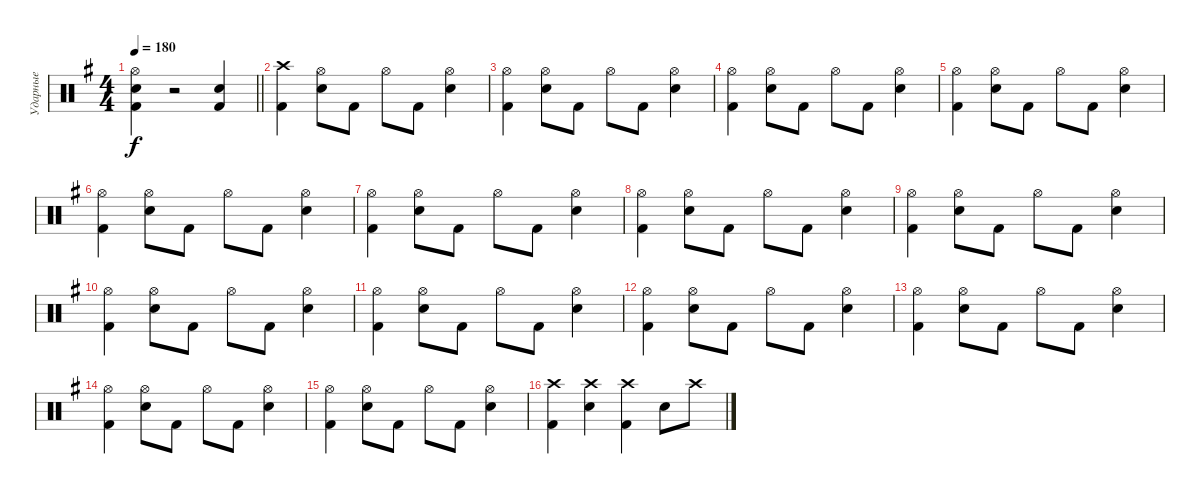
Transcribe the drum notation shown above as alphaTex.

\track ("Ударные" "Ударные") {instrument percussion}
\staff {score}
\articulation defaults
\ts (4 4)
\tempo 180
\clef neutral
\barLineRight lightlight
\ks g
("Hi-Hat (open)" "Snare (hit) 2" "Kick (hit) 2").4{dy f} r.2 ("Snare (hit) 2" "Kick (hit) 2").4 |
("Crash high (hit)" "Kick (hit) 2").4 ("Hi-Hat (open)" "Snare (hit) 2").8 "Kick (hit) 2".8 "Hi-Hat (open)".8 "Kick (hit) 2".8 ("Hi-Hat (open)" "Snare (hit) 2").4 |
("Hi-Hat (open)" "Kick (hit) 2").4 ("Hi-Hat (open)" "Snare (hit) 2").8 "Kick (hit) 2".8 "Hi-Hat (open)".8 "Kick (hit) 2".8 ("Hi-Hat (open)" "Snare (hit) 2").4 |
("Hi-Hat (open)" "Kick (hit) 2").4 ("Hi-Hat (open)" "Snare (hit) 2").8 "Kick (hit) 2".8 "Hi-Hat (open)".8 "Kick (hit) 2".8 ("Hi-Hat (open)" "Snare (hit) 2").4 |
("Hi-Hat (open)" "Kick (hit) 2").4 ("Hi-Hat (open)" "Snare (hit) 2").8 "Kick (hit) 2".8 "Hi-Hat (open)".8 "Kick (hit) 2".8 ("Hi-Hat (open)" "Snare (hit) 2").4 |
("Hi-Hat (open)" "Kick (hit) 2").4 ("Hi-Hat (open)" "Snare (hit) 2").8 "Kick (hit) 2".8 "Hi-Hat (open)".8 "Kick (hit) 2".8 ("Hi-Hat (open)" "Snare (hit) 2").4 |
("Hi-Hat (open)" "Kick (hit) 2").4 ("Hi-Hat (open)" "Snare (hit) 2").8 "Kick (hit) 2".8 "Hi-Hat (open)".8 "Kick (hit) 2".8 ("Hi-Hat (open)" "Snare (hit) 2").4 |
("Hi-Hat (open)" "Kick (hit) 2").4 ("Hi-Hat (open)" "Snare (hit) 2").8 "Kick (hit) 2".8 "Hi-Hat (open)".8 "Kick (hit) 2".8 ("Hi-Hat (open)" "Snare (hit) 2").4 |
("Hi-Hat (open)" "Kick (hit) 2").4 ("Hi-Hat (open)" "Snare (hit) 2").8 "Kick (hit) 2".8 "Hi-Hat (open)".8 "Kick (hit) 2".8 ("Hi-Hat (open)" "Snare (hit) 2").4 |
("Hi-Hat (open)" "Kick (hit) 2").4 ("Hi-Hat (open)" "Snare (hit) 2").8 "Kick (hit) 2".8 "Hi-Hat (open)".8 "Kick (hit) 2".8 ("Hi-Hat (open)" "Snare (hit) 2").4 |
("Hi-Hat (open)" "Kick (hit) 2").4 ("Hi-Hat (open)" "Snare (hit) 2").8 "Kick (hit) 2".8 "Hi-Hat (open)".8 "Kick (hit) 2".8 ("Hi-Hat (open)" "Snare (hit) 2").4 |
("Hi-Hat (open)" "Kick (hit) 2").4 ("Hi-Hat (open)" "Snare (hit) 2").8 "Kick (hit) 2".8 "Hi-Hat (open)".8 "Kick (hit) 2".8 ("Hi-Hat (open)" "Snare (hit) 2").4 |
("Hi-Hat (open)" "Kick (hit) 2").4 ("Hi-Hat (open)" "Snare (hit) 2").8 "Kick (hit) 2".8 "Hi-Hat (open)".8 "Kick (hit) 2".8 ("Hi-Hat (open)" "Snare (hit) 2").4 |
("Hi-Hat (open)" "Kick (hit) 2").4 ("Hi-Hat (open)" "Snare (hit) 2").8 "Kick (hit) 2".8 "Hi-Hat (open)".8 "Kick (hit) 2".8 ("Hi-Hat (open)" "Snare (hit) 2").4 |
("Hi-Hat (open)" "Kick (hit) 2").4 ("Hi-Hat (open)" "Snare (hit) 2").8 "Kick (hit) 2".8 "Hi-Hat (open)".8 "Kick (hit) 2".8 ("Hi-Hat (open)" "Snare (hit) 2").4 |
("Crash high (hit)" "Kick (hit) 2").4 ("Crash high (hit)" "Snare (hit) 2").4 ("Crash high (hit)" "Kick (hit) 2").4 "Snare (hit) 2".8 "Crash high (hit)".8
